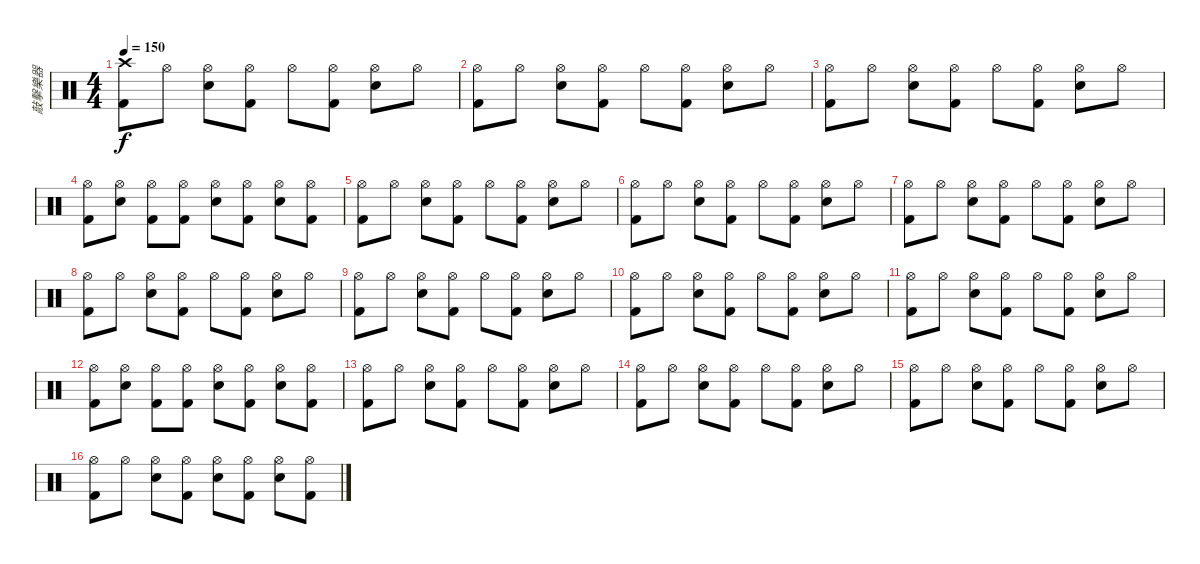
\track ("敲擊樂器" "敲擊樂器") {instrument percussion}
\staff {score}
\articulation defaults
\ts (4 4)
\tempo 150
\clef neutral
\ks c
("Crash high (hit)" "Kick (hit) 2").8{dy f} "Hi-Hat (open)".8 ("Hi-Hat (open)" "Electric Snare (hit)").8 ("Hi-Hat (open)" "Kick (hit) 2").8 "Hi-Hat (open)".8 ("Hi-Hat (open)" "Kick (hit) 2").8 ("Hi-Hat (open)" "Electric Snare (hit)").8 "Hi-Hat (open)".8 |
("Hi-Hat (open)" "Kick (hit) 2").8 "Hi-Hat (open)".8 ("Hi-Hat (open)" "Electric Snare (hit)").8 ("Hi-Hat (open)" "Kick (hit) 2").8 "Hi-Hat (open)".8 ("Hi-Hat (open)" "Kick (hit) 2").8 ("Hi-Hat (open)" "Electric Snare (hit)").8 "Hi-Hat (open)".8 |
("Hi-Hat (open)" "Kick (hit) 2").8 "Hi-Hat (open)".8 ("Hi-Hat (open)" "Electric Snare (hit)").8 ("Hi-Hat (open)" "Kick (hit) 2").8 "Hi-Hat (open)".8 ("Hi-Hat (open)" "Kick (hit) 2").8 ("Hi-Hat (open)" "Electric Snare (hit)").8 "Hi-Hat (open)".8 |
("Hi-Hat (open)" "Kick (hit) 2").8 ("Hi-Hat (open)" "Electric Snare (hit)").8 ("Hi-Hat (open)" "Kick (hit) 2").8 ("Hi-Hat (open)" "Kick (hit) 2").8 ("Hi-Hat (open)" "Electric Snare (hit)").8 ("Hi-Hat (open)" "Kick (hit) 2").8 ("Hi-Hat (open)" "Electric Snare (hit)").8 ("Hi-Hat (open)" "Kick (hit) 2").8 |
("Hi-Hat (open)" "Kick (hit) 2").8 "Hi-Hat (open)".8 ("Hi-Hat (open)" "Electric Snare (hit)").8 ("Hi-Hat (open)" "Kick (hit) 2").8 "Hi-Hat (open)".8 ("Hi-Hat (open)" "Kick (hit) 2").8 ("Hi-Hat (open)" "Electric Snare (hit)").8 "Hi-Hat (open)".8 |
("Hi-Hat (open)" "Kick (hit) 2").8 "Hi-Hat (open)".8 ("Hi-Hat (open)" "Electric Snare (hit)").8 ("Hi-Hat (open)" "Kick (hit) 2").8 "Hi-Hat (open)".8 ("Hi-Hat (open)" "Kick (hit) 2").8 ("Hi-Hat (open)" "Electric Snare (hit)").8 "Hi-Hat (open)".8 |
("Hi-Hat (open)" "Kick (hit) 2").8 "Hi-Hat (open)".8 ("Hi-Hat (open)" "Electric Snare (hit)").8 ("Hi-Hat (open)" "Kick (hit) 2").8 "Hi-Hat (open)".8 ("Hi-Hat (open)" "Kick (hit) 2").8 ("Hi-Hat (open)" "Electric Snare (hit)").8 "Hi-Hat (open)".8 |
("Hi-Hat (open)" "Kick (hit) 2").8 "Hi-Hat (open)".8 ("Hi-Hat (open)" "Electric Snare (hit)").8 ("Hi-Hat (open)" "Kick (hit) 2").8 "Hi-Hat (open)".8 ("Hi-Hat (open)" "Kick (hit) 2").8 ("Hi-Hat (open)" "Electric Snare (hit)").8 "Hi-Hat (open)".8 |
("Hi-Hat (open)" "Kick (hit) 2").8 "Hi-Hat (open)".8 ("Hi-Hat (open)" "Electric Snare (hit)").8 ("Hi-Hat (open)" "Kick (hit) 2").8 "Hi-Hat (open)".8 ("Hi-Hat (open)" "Kick (hit) 2").8 ("Hi-Hat (open)" "Electric Snare (hit)").8 "Hi-Hat (open)".8 |
("Hi-Hat (open)" "Kick (hit) 2").8 "Hi-Hat (open)".8 ("Hi-Hat (open)" "Electric Snare (hit)").8 ("Hi-Hat (open)" "Kick (hit) 2").8 "Hi-Hat (open)".8 ("Hi-Hat (open)" "Kick (hit) 2").8 ("Hi-Hat (open)" "Electric Snare (hit)").8 "Hi-Hat (open)".8 |
("Hi-Hat (open)" "Kick (hit) 2").8 "Hi-Hat (open)".8 ("Hi-Hat (open)" "Electric Snare (hit)").8 ("Hi-Hat (open)" "Kick (hit) 2").8 "Hi-Hat (open)".8 ("Hi-Hat (open)" "Kick (hit) 2").8 ("Hi-Hat (open)" "Electric Snare (hit)").8 "Hi-Hat (open)".8 |
("Hi-Hat (open)" "Kick (hit) 2").8 ("Hi-Hat (open)" "Electric Snare (hit)").8 ("Hi-Hat (open)" "Kick (hit) 2").8 ("Hi-Hat (open)" "Kick (hit) 2").8 ("Hi-Hat (open)" "Electric Snare (hit)").8 ("Hi-Hat (open)" "Kick (hit) 2").8 ("Hi-Hat (open)" "Electric Snare (hit)").8 ("Hi-Hat (open)" "Kick (hit) 2").8 |
("Hi-Hat (open)" "Kick (hit) 2").8 "Hi-Hat (open)".8 ("Hi-Hat (open)" "Electric Snare (hit)").8 ("Hi-Hat (open)" "Kick (hit) 2").8 "Hi-Hat (open)".8 ("Hi-Hat (open)" "Kick (hit) 2").8 ("Hi-Hat (open)" "Electric Snare (hit)").8 "Hi-Hat (open)".8 |
("Hi-Hat (open)" "Kick (hit) 2").8 "Hi-Hat (open)".8 ("Hi-Hat (open)" "Electric Snare (hit)").8 ("Hi-Hat (open)" "Kick (hit) 2").8 "Hi-Hat (open)".8 ("Hi-Hat (open)" "Kick (hit) 2").8 ("Hi-Hat (open)" "Electric Snare (hit)").8 "Hi-Hat (open)".8 |
("Hi-Hat (open)" "Kick (hit) 2").8 "Hi-Hat (open)".8 ("Hi-Hat (open)" "Electric Snare (hit)").8 ("Hi-Hat (open)" "Kick (hit) 2").8 "Hi-Hat (open)".8 ("Hi-Hat (open)" "Kick (hit) 2").8 ("Hi-Hat (open)" "Electric Snare (hit)").8 "Hi-Hat (open)".8 |
("Hi-Hat (open)" "Kick (hit) 2").8 "Hi-Hat (open)".8 ("Hi-Hat (open)" "Electric Snare (hit)").8 ("Hi-Hat (open)" "Kick (hit) 2").8 ("Hi-Hat (open)" "Electric Snare (hit)").8 ("Hi-Hat (open)" "Kick (hit) 2").8 ("Hi-Hat (open)" "Electric Snare (hit)").8 ("Hi-Hat (open)" "Kick (hit) 2").8
